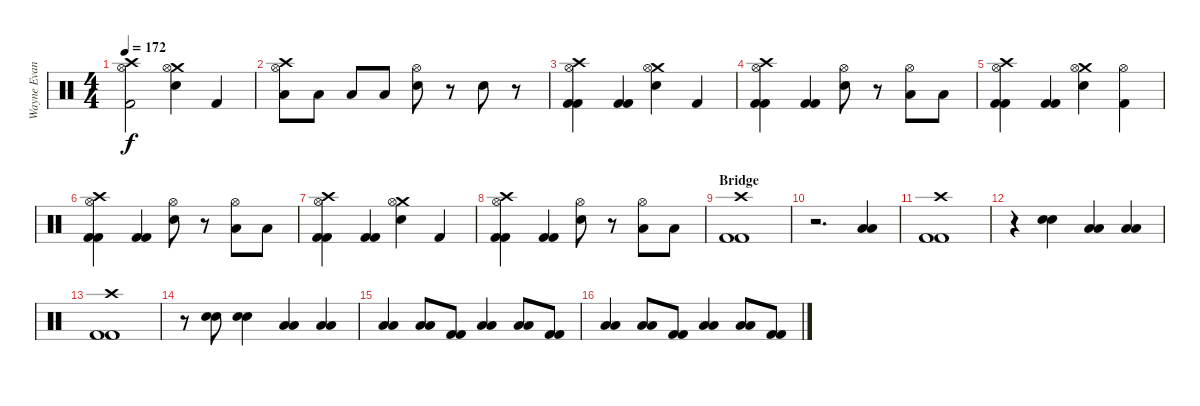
\track ("Wayne Evans  " "Wayne Evan") {instrument percussion}
\staff {score}
\articulation defaults
\ts (4 4)
\tempo 172
\clef neutral
\ks c
("Crash high (hit)" "Hi-Hat (open)" "Kick (hit) 2").2{dy f} ("Crash medium (hit)" "Hi-Hat (open)" "Snare (hit) 2").4 "Kick (hit) 2".4 |
("Crash high (hit)" "Hi-Hat (open)" "Low Tom (hit)").8 "Low Tom (hit)".8 "Low Tom (hit)".8 "Low Tom (hit)".8 ("Hi-Hat (open)" "Electric Snare (hit)").8 r.8 "Electric Snare (hit)".8 r.8 |
("Crash high (hit)" "Hi-Hat (open)" "Kick (hit) 2" "Kick (hit) 2").4 ("Kick (hit) 2" "Kick (hit) 2").4 ("Crash medium (hit)" "Hi-Hat (open)" "Snare (hit) 2").4 "Kick (hit) 2".4 |
("Crash high (hit)" "Hi-Hat (open)" "Kick (hit) 2" "Kick (hit) 2").4 ("Kick (hit) 2" "Kick (hit) 2").4 ("Hi-Hat (open)" "Snare (hit) 2").8 r.8 ("Hi-Hat (open)" "Low Tom (hit)").8 "Low Tom (hit)".8 |
("Crash high (hit)" "Hi-Hat (open)" "Kick (hit) 2" "Kick (hit) 2").4 ("Kick (hit) 2" "Kick (hit) 2").4 ("Crash medium (hit)" "Hi-Hat (open)" "Snare (hit) 2").4 ("Hi-Hat (open)" "Kick (hit) 2").4 |
("Crash high (hit)" "Hi-Hat (open)" "Kick (hit) 2" "Kick (hit) 2").4 ("Kick (hit) 2" "Kick (hit) 2").4 ("Hi-Hat (open)" "Snare (hit) 2").8 r.8 ("Hi-Hat (open)" "Low Tom (hit)").8 "Low Tom (hit)".8 |
("Crash high (hit)" "Hi-Hat (open)" "Kick (hit) 2" "Kick (hit) 2").4 ("Kick (hit) 2" "Kick (hit) 2").4 ("Crash medium (hit)" "Hi-Hat (open)" "Snare (hit) 2").4 "Kick (hit) 2".4 |
("Crash high (hit)" "Hi-Hat (open)" "Kick (hit) 2" "Kick (hit) 2").4 ("Kick (hit) 2" "Kick (hit) 2").4 ("Hi-Hat (open)" "Snare (hit) 2").8 r.8 ("Hi-Hat (open)" "Low Tom (hit)").8 "Low Tom (hit)".8 |
\section ("" "Bridge")
("Crash high (hit)" "Kick (hit) 2" "Kick (hit) 2").1 |
r.2{d} ("Low Tom (hit)" "Low Tom (hit)").4 |
("Crash high (hit)" "Kick (hit) 2" "Kick (hit) 2").1 |
r.4 ("Snare (hit) 2" "Snare (hit) 2").4 ("Low Tom (hit)" "Low Tom (hit)").4 ("Low Tom (hit)" "Low Tom (hit)").4 |
("Crash high (hit)" "Kick (hit) 2" "Kick (hit) 2").1 |
r.8 ("Snare (hit) 2" "Snare (hit) 2").8 ("Snare (hit) 2" "Snare (hit) 2").4 ("Low Tom (hit)" "Low Tom (hit)").4 ("Low Tom (hit)" "Low Tom (hit)").4 |
("Low Tom (hit)" "Low Tom (hit)").4 ("Low Tom (hit)" "Low Tom (hit)").8 ("Kick (hit) 2" "Kick (hit) 2").8 ("Low Tom (hit)" "Low Tom (hit)").4 ("Low Tom (hit)" "Low Tom (hit)").8 ("Kick (hit) 2" "Kick (hit) 2").8 |
("Low Tom (hit)" "Low Tom (hit)").4 ("Low Tom (hit)" "Low Tom (hit)").8 ("Kick (hit) 2" "Kick (hit) 2").8 ("Low Tom (hit)" "Low Tom (hit)").4 ("Low Tom (hit)" "Low Tom (hit)").8 ("Kick (hit) 2" "Kick (hit) 2").8
